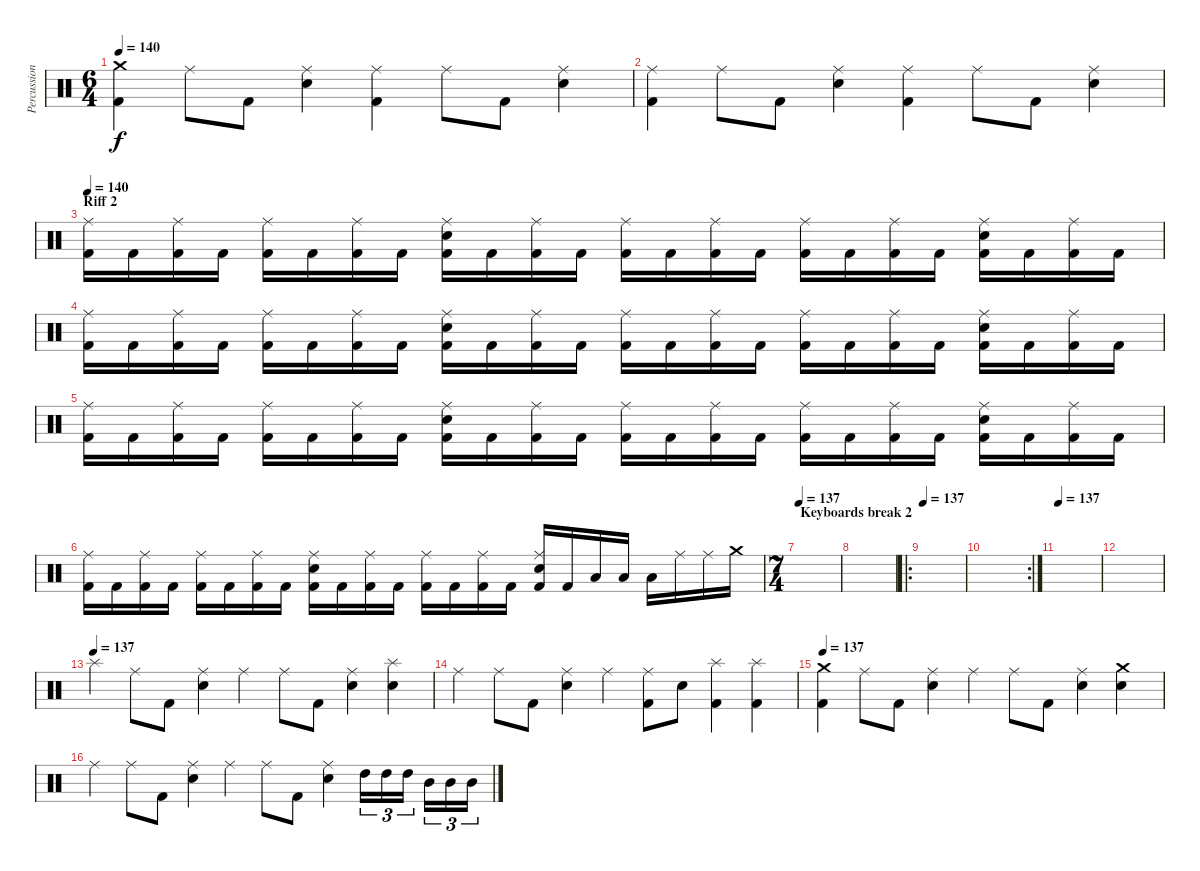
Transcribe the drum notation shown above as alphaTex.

\track ("Percussion" "Percussion") {instrument percussion}
\staff {score}
\articulation defaults
\ts (6 4)
\tempo 140
\clef neutral
\ks c
("Crash medium (hit)" "Kick (hit) 2").4{dy f} "Ride (middle)".8 "Kick (hit) 2".8 ("Ride (middle)" "Electric Snare (hit)").4 ("Ride (middle)" "Kick (hit) 2").4 "Ride (middle)".8 "Kick (hit) 2".8 ("Ride (middle)" "Electric Snare (hit)").4 |
("Ride (middle)" "Kick (hit) 2").4 "Ride (middle)".8 "Kick (hit) 2".8 ("Ride (middle)" "Electric Snare (hit)").4 ("Ride (middle)" "Kick (hit) 2").4 "Ride (middle)".8 "Kick (hit) 2".8 ("Ride (middle)" "Electric Snare (hit)").4 |
\section ("" "Riff 2")
\tempo 140
("Kick (hit) 2" "Ride (middle)").16 "Kick (hit) 2".16 ("Kick (hit) 2" "Ride (middle)").16 "Kick (hit) 2".16 ("Kick (hit) 2" "Ride (middle)").16 "Kick (hit) 2".16 ("Kick (hit) 2" "Ride (middle)").16 "Kick (hit) 2".16 ("Kick (hit) 2" "Electric Snare (hit)" "Ride (middle)").16 "Kick (hit) 2".16 ("Kick (hit) 2" "Ride (middle)").16 "Kick (hit) 2".16 ("Kick (hit) 2" "Ride (middle)").16 "Kick (hit) 2".16 ("Kick (hit) 2" "Ride (middle)").16 "Kick (hit) 2".16 ("Kick (hit) 2" "Ride (middle)").16 "Kick (hit) 2".16 ("Kick (hit) 2" "Ride (middle)").16 "Kick (hit) 2".16 ("Kick (hit) 2" "Electric Snare (hit)" "Ride (middle)").16 "Kick (hit) 2".16 ("Kick (hit) 2" "Ride (middle)").16 "Kick (hit) 2".16 |
("Kick (hit) 2" "Ride (middle)").16 "Kick (hit) 2".16 ("Kick (hit) 2" "Ride (middle)").16 "Kick (hit) 2".16 ("Kick (hit) 2" "Ride (middle)").16 "Kick (hit) 2".16 ("Kick (hit) 2" "Ride (middle)").16 "Kick (hit) 2".16 ("Kick (hit) 2" "Electric Snare (hit)" "Ride (middle)").16 "Kick (hit) 2".16 ("Kick (hit) 2" "Ride (middle)").16 "Kick (hit) 2".16 ("Kick (hit) 2" "Ride (middle)").16 "Kick (hit) 2".16 ("Kick (hit) 2" "Ride (middle)").16 "Kick (hit) 2".16 ("Kick (hit) 2" "Ride (middle)").16 "Kick (hit) 2".16 ("Kick (hit) 2" "Ride (middle)").16 "Kick (hit) 2".16 ("Kick (hit) 2" "Electric Snare (hit)" "Ride (middle)").16 "Kick (hit) 2".16 ("Kick (hit) 2" "Ride (middle)").16 "Kick (hit) 2".16 |
("Kick (hit) 2" "Ride (middle)").16 "Kick (hit) 2".16 ("Kick (hit) 2" "Ride (middle)").16 "Kick (hit) 2".16 ("Kick (hit) 2" "Ride (middle)").16 "Kick (hit) 2".16 ("Kick (hit) 2" "Ride (middle)").16 "Kick (hit) 2".16 ("Kick (hit) 2" "Electric Snare (hit)" "Ride (middle)").16 "Kick (hit) 2".16 ("Kick (hit) 2" "Ride (middle)").16 "Kick (hit) 2".16 ("Kick (hit) 2" "Ride (middle)").16 "Kick (hit) 2".16 ("Kick (hit) 2" "Ride (middle)").16 "Kick (hit) 2".16 ("Kick (hit) 2" "Ride (middle)").16 "Kick (hit) 2".16 ("Kick (hit) 2" "Ride (middle)").16 "Kick (hit) 2".16 ("Kick (hit) 2" "Electric Snare (hit)" "Ride (middle)").16 "Kick (hit) 2".16 ("Kick (hit) 2" "Ride (middle)").16 "Kick (hit) 2".16 |
("Kick (hit) 2" "Ride (middle)").16 "Kick (hit) 2".16 ("Kick (hit) 2" "Ride (middle)").16 "Kick (hit) 2".16 ("Kick (hit) 2" "Ride (middle)").16 "Kick (hit) 2".16 ("Kick (hit) 2" "Ride (middle)").16 "Kick (hit) 2".16 ("Kick (hit) 2" "Electric Snare (hit)" "Ride (middle)").16 "Kick (hit) 2".16 ("Kick (hit) 2" "Ride (middle)").16 "Kick (hit) 2".16 ("Kick (hit) 2" "Ride (middle)").16 "Kick (hit) 2".16 ("Kick (hit) 2" "Ride (middle)").16 "Kick (hit) 2".16 ("Kick (hit) 2" "Electric Snare (hit)" "Ride (middle)").16 "Kick (hit) 2".16 "Low Tom (hit)".16 "Low Tom (hit)".16 "Low Tom (hit)".16 "Ride (middle)".16 "Ride (middle)".16 "Crash medium (hit)".16 |
\ts (7 4)
\section ("" "Keyboards break 2")
\tempo 137
|
|
\ro
\tempo 137
|
\rc 2
|
\tempo 137
|
|
\tempo (137)
"Splash (hit)".4 "Ride (middle)".8 "Kick (hit) 2".8 ("Ride (middle)" "Electric Snare (hit)").4 "Ride (middle)".4 "Ride (middle)".8 "Kick (hit) 2".8 ("Ride (middle)" "Electric Snare (hit)").4 ("Splash (hit)" "Electric Snare (hit)").4 |
"Ride (middle)".4 "Ride (middle)".8 "Kick (hit) 2".8 ("Ride (middle)" "Electric Snare (hit)").4 "Ride (middle)".4 ("Ride (middle)" "Kick (hit) 2").8 "Electric Snare (hit)".8 ("Splash (hit)" "Kick (hit) 2").4 ("Splash (hit)" "Kick (hit) 2").4 |
\tempo 137
("Crash medium (hit)" "Kick (hit) 2").4 "Ride (middle)".8 "Kick (hit) 2".8 ("Ride (middle)" "Electric Snare (hit)").4 "Ride (middle)".4 "Ride (middle)".8 "Kick (hit) 2".8 ("Ride (middle)" "Electric Snare (hit)").4 ("Crash medium (hit)" "Electric Snare (hit)").4 |
"Ride (middle)".4 "Ride (middle)".8 "Kick (hit) 2".8 ("Ride (middle)" "Electric Snare (hit)").4 "Ride (middle)".4 "Ride (middle)".8 "Kick (hit) 2".8 ("Ride (middle)" "Electric Snare (hit)").4 "High Tom (hit)".16{tu (3 2)} "High Tom (hit)".16{tu (3 2)} "High Tom (hit)".16{tu (3 2)} "Mid Tom (hit)".16{tu (3 2)} "Mid Tom (hit)".16{tu (3 2)} "Mid Tom (hit)".16{tu (3 2)}
